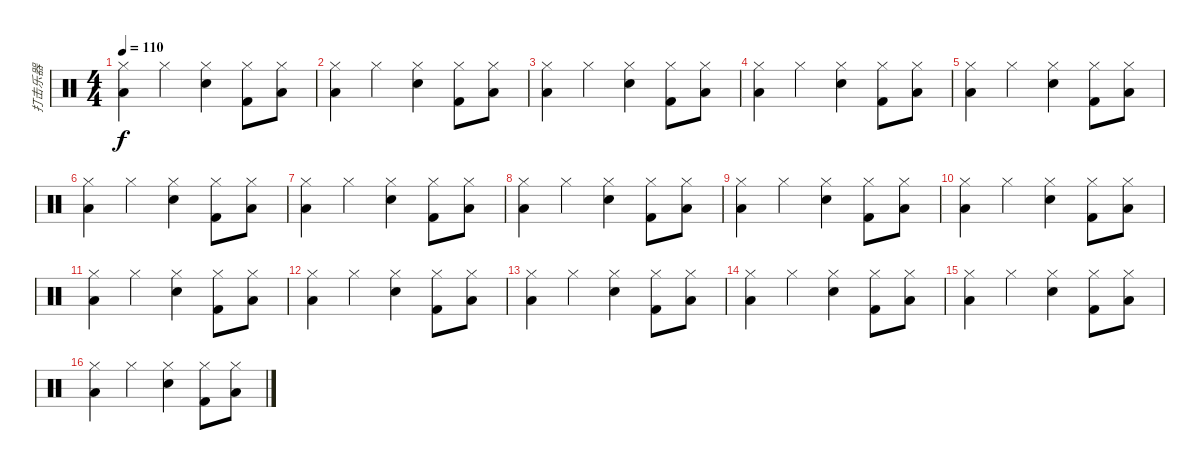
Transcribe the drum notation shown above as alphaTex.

\track ("打击乐器" "打击乐器") {instrument percussion}
\staff {score}
\articulation defaults
\ts (4 4)
\tempo 110
\clef neutral
\ks c
("Hi-Hat (closed)" "Low Floor Tom (hit)").4{dy f} "Hi-Hat (closed)".4 ("Hi-Hat (closed)" "Electric Snare (hit)").4 ("Hi-Hat (closed)" "Kick (hit) 2").8 ("Hi-Hat (closed)" "Low Floor Tom (hit)").8 |
("Hi-Hat (closed)" "Low Floor Tom (hit)").4 "Hi-Hat (closed)".4 ("Hi-Hat (closed)" "Electric Snare (hit)").4 ("Hi-Hat (closed)" "Kick (hit) 2").8 ("Hi-Hat (closed)" "Low Floor Tom (hit)").8 |
("Hi-Hat (closed)" "Low Floor Tom (hit)").4 "Hi-Hat (closed)".4 ("Hi-Hat (closed)" "Electric Snare (hit)").4 ("Hi-Hat (closed)" "Kick (hit) 2").8 ("Hi-Hat (closed)" "Low Floor Tom (hit)").8 |
("Hi-Hat (closed)" "Low Floor Tom (hit)").4 "Hi-Hat (closed)".4 ("Hi-Hat (closed)" "Electric Snare (hit)").4 ("Hi-Hat (closed)" "Kick (hit) 2").8 ("Hi-Hat (closed)" "Low Floor Tom (hit)").8 |
("Hi-Hat (closed)" "Low Floor Tom (hit)").4 "Hi-Hat (closed)".4 ("Hi-Hat (closed)" "Electric Snare (hit)").4 ("Hi-Hat (closed)" "Kick (hit) 2").8 ("Hi-Hat (closed)" "Low Floor Tom (hit)").8 |
("Hi-Hat (closed)" "Low Floor Tom (hit)").4 "Hi-Hat (closed)".4 ("Hi-Hat (closed)" "Electric Snare (hit)").4 ("Hi-Hat (closed)" "Kick (hit) 2").8 ("Hi-Hat (closed)" "Low Floor Tom (hit)").8 |
("Hi-Hat (closed)" "Low Floor Tom (hit)").4 "Hi-Hat (closed)".4 ("Hi-Hat (closed)" "Electric Snare (hit)").4 ("Hi-Hat (closed)" "Kick (hit) 2").8 ("Hi-Hat (closed)" "Low Floor Tom (hit)").8 |
("Hi-Hat (closed)" "Low Floor Tom (hit)").4 "Hi-Hat (closed)".4 ("Hi-Hat (closed)" "Electric Snare (hit)").4 ("Hi-Hat (closed)" "Kick (hit) 2").8 ("Hi-Hat (closed)" "Low Floor Tom (hit)").8 |
("Hi-Hat (closed)" "Low Floor Tom (hit)").4 "Hi-Hat (closed)".4 ("Hi-Hat (closed)" "Electric Snare (hit)").4 ("Hi-Hat (closed)" "Kick (hit) 2").8 ("Hi-Hat (closed)" "Low Floor Tom (hit)").8 |
("Hi-Hat (closed)" "Low Floor Tom (hit)").4 "Hi-Hat (closed)".4 ("Hi-Hat (closed)" "Electric Snare (hit)").4 ("Hi-Hat (closed)" "Kick (hit) 2").8 ("Hi-Hat (closed)" "Low Floor Tom (hit)").8 |
("Hi-Hat (closed)" "Low Floor Tom (hit)").4 "Hi-Hat (closed)".4 ("Hi-Hat (closed)" "Electric Snare (hit)").4 ("Hi-Hat (closed)" "Kick (hit) 2").8 ("Hi-Hat (closed)" "Low Floor Tom (hit)").8 |
("Hi-Hat (closed)" "Low Floor Tom (hit)").4 "Hi-Hat (closed)".4 ("Hi-Hat (closed)" "Electric Snare (hit)").4 ("Hi-Hat (closed)" "Kick (hit) 2").8 ("Hi-Hat (closed)" "Low Floor Tom (hit)").8 |
("Hi-Hat (closed)" "Low Floor Tom (hit)").4 "Hi-Hat (closed)".4 ("Hi-Hat (closed)" "Electric Snare (hit)").4 ("Hi-Hat (closed)" "Kick (hit) 2").8 ("Hi-Hat (closed)" "Low Floor Tom (hit)").8 |
("Hi-Hat (closed)" "Low Floor Tom (hit)").4 "Hi-Hat (closed)".4 ("Hi-Hat (closed)" "Electric Snare (hit)").4 ("Hi-Hat (closed)" "Kick (hit) 2").8 ("Hi-Hat (closed)" "Low Floor Tom (hit)").8 |
("Hi-Hat (closed)" "Low Floor Tom (hit)").4 "Hi-Hat (closed)".4 ("Hi-Hat (closed)" "Electric Snare (hit)").4 ("Hi-Hat (closed)" "Kick (hit) 2").8 ("Hi-Hat (closed)" "Low Floor Tom (hit)").8 |
("Hi-Hat (closed)" "Low Floor Tom (hit)").4 "Hi-Hat (closed)".4 ("Hi-Hat (closed)" "Electric Snare (hit)").4 ("Hi-Hat (closed)" "Kick (hit) 2").8 ("Hi-Hat (closed)" "Low Floor Tom (hit)").8
